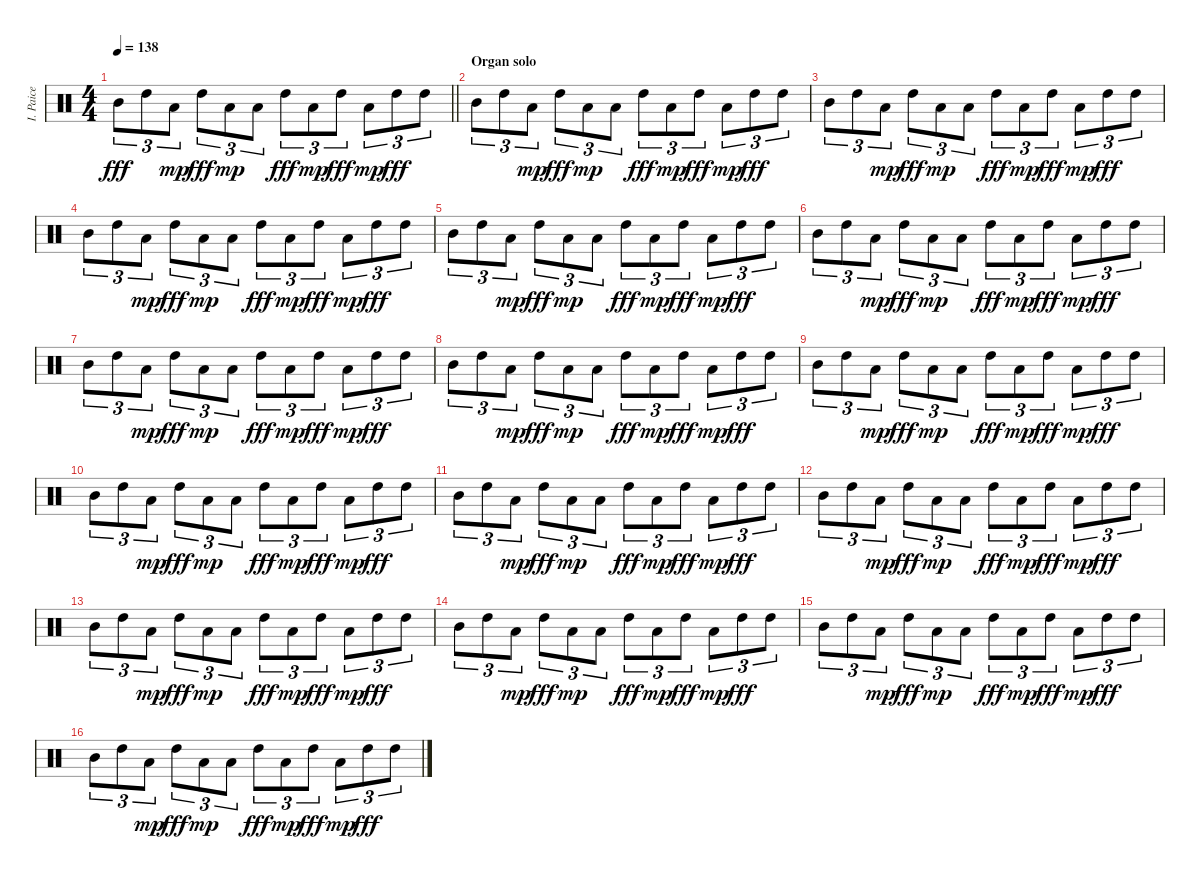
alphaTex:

\track ("I. Paice" "I. Paice") {instrument percussion}
\staff {score}
\articulation defaults
\ts (4 4)
\tempo 138
\clef neutral
\barLineRight lightlight
\ks c "Mid Tom (hit)".8{tu (3 2) dy fff} "High Tom (hit)".8{tu (3 2)} "Low Tom (hit)".8{tu (3 2) dy mp} "High Tom (hit)".8{tu (3 2) dy fff} "Low Tom (hit)".8{tu (3 2) dy mp} "Low Tom (hit)".8{tu (3 2)} "High Tom (hit)".8{tu (3 2) dy fff} "Low Tom (hit)".8{tu (3 2) dy mp} "High Tom (hit)".8{tu (3 2) dy fff} "Low Tom (hit)".8{tu (3 2) dy mp} "High Tom (hit)".8{tu (3 2) dy fff} "High Tom (hit)".8{tu (3 2)}
|
\section ("" "Organ solo")
"Mid Tom (hit)".8{tu (3 2)} "High Tom (hit)".8{tu (3 2)} "Low Tom (hit)".8{tu (3 2) dy mp} "High Tom (hit)".8{tu (3 2) dy fff} "Low Tom (hit)".8{tu (3 2) dy mp} "Low Tom (hit)".8{tu (3 2)} "High Tom (hit)".8{tu (3 2) dy fff} "Low Tom (hit)".8{tu (3 2) dy mp} "High Tom (hit)".8{tu (3 2) dy fff} "Low Tom (hit)".8{tu (3 2) dy mp} "High Tom (hit)".8{tu (3 2) dy fff} "High Tom (hit)".8{tu (3 2)} |
"Mid Tom (hit)".8{tu (3 2)} "High Tom (hit)".8{tu (3 2)} "Low Tom (hit)".8{tu (3 2) dy mp} "High Tom (hit)".8{tu (3 2) dy fff} "Low Tom (hit)".8{tu (3 2) dy mp} "Low Tom (hit)".8{tu (3 2)} "High Tom (hit)".8{tu (3 2) dy fff} "Low Tom (hit)".8{tu (3 2) dy mp} "High Tom (hit)".8{tu (3 2) dy fff} "Low Tom (hit)".8{tu (3 2) dy mp} "High Tom (hit)".8{tu (3 2) dy fff} "High Tom (hit)".8{tu (3 2)} |
"Mid Tom (hit)".8{tu (3 2)} "High Tom (hit)".8{tu (3 2)} "Low Tom (hit)".8{tu (3 2) dy mp} "High Tom (hit)".8{tu (3 2) dy fff} "Low Tom (hit)".8{tu (3 2) dy mp} "Low Tom (hit)".8{tu (3 2)} "High Tom (hit)".8{tu (3 2) dy fff} "Low Tom (hit)".8{tu (3 2) dy mp} "High Tom (hit)".8{tu (3 2) dy fff} "Low Tom (hit)".8{tu (3 2) dy mp} "High Tom (hit)".8{tu (3 2) dy fff} "High Tom (hit)".8{tu (3 2)} |
"Mid Tom (hit)".8{tu (3 2)} "High Tom (hit)".8{tu (3 2)} "Low Tom (hit)".8{tu (3 2) dy mp} "High Tom (hit)".8{tu (3 2) dy fff} "Low Tom (hit)".8{tu (3 2) dy mp} "Low Tom (hit)".8{tu (3 2)} "High Tom (hit)".8{tu (3 2) dy fff} "Low Tom (hit)".8{tu (3 2) dy mp} "High Tom (hit)".8{tu (3 2) dy fff} "Low Tom (hit)".8{tu (3 2) dy mp} "High Tom (hit)".8{tu (3 2) dy fff} "High Tom (hit)".8{tu (3 2)} |
"Mid Tom (hit)".8{tu (3 2)} "High Tom (hit)".8{tu (3 2)} "Low Tom (hit)".8{tu (3 2) dy mp} "High Tom (hit)".8{tu (3 2) dy fff} "Low Tom (hit)".8{tu (3 2) dy mp} "Low Tom (hit)".8{tu (3 2)} "High Tom (hit)".8{tu (3 2) dy fff} "Low Tom (hit)".8{tu (3 2) dy mp} "High Tom (hit)".8{tu (3 2) dy fff} "Low Tom (hit)".8{tu (3 2) dy mp} "High Tom (hit)".8{tu (3 2) dy fff} "High Tom (hit)".8{tu (3 2)} |
"Mid Tom (hit)".8{tu (3 2)} "High Tom (hit)".8{tu (3 2)} "Low Tom (hit)".8{tu (3 2) dy mp} "High Tom (hit)".8{tu (3 2) dy fff} "Low Tom (hit)".8{tu (3 2) dy mp} "Low Tom (hit)".8{tu (3 2)} "High Tom (hit)".8{tu (3 2) dy fff} "Low Tom (hit)".8{tu (3 2) dy mp} "High Tom (hit)".8{tu (3 2) dy fff} "Low Tom (hit)".8{tu (3 2) dy mp} "High Tom (hit)".8{tu (3 2) dy fff} "High Tom (hit)".8{tu (3 2)} |
"Mid Tom (hit)".8{tu (3 2)} "High Tom (hit)".8{tu (3 2)} "Low Tom (hit)".8{tu (3 2) dy mp} "High Tom (hit)".8{tu (3 2) dy fff} "Low Tom (hit)".8{tu (3 2) dy mp} "Low Tom (hit)".8{tu (3 2)} "High Tom (hit)".8{tu (3 2) dy fff} "Low Tom (hit)".8{tu (3 2) dy mp} "High Tom (hit)".8{tu (3 2) dy fff} "Low Tom (hit)".8{tu (3 2) dy mp} "High Tom (hit)".8{tu (3 2) dy fff} "High Tom (hit)".8{tu (3 2)} |
"Mid Tom (hit)".8{tu (3 2)} "High Tom (hit)".8{tu (3 2)} "Low Tom (hit)".8{tu (3 2) dy mp} "High Tom (hit)".8{tu (3 2) dy fff} "Low Tom (hit)".8{tu (3 2) dy mp} "Low Tom (hit)".8{tu (3 2)} "High Tom (hit)".8{tu (3 2) dy fff} "Low Tom (hit)".8{tu (3 2) dy mp} "High Tom (hit)".8{tu (3 2) dy fff} "Low Tom (hit)".8{tu (3 2) dy mp} "High Tom (hit)".8{tu (3 2) dy fff} "High Tom (hit)".8{tu (3 2)} |
"Mid Tom (hit)".8{tu (3 2)} "High Tom (hit)".8{tu (3 2)} "Low Tom (hit)".8{tu (3 2) dy mp} "High Tom (hit)".8{tu (3 2) dy fff} "Low Tom (hit)".8{tu (3 2) dy mp} "Low Tom (hit)".8{tu (3 2)} "High Tom (hit)".8{tu (3 2) dy fff} "Low Tom (hit)".8{tu (3 2) dy mp} "High Tom (hit)".8{tu (3 2) dy fff} "Low Tom (hit)".8{tu (3 2) dy mp} "High Tom (hit)".8{tu (3 2) dy fff} "High Tom (hit)".8{tu (3 2)} |
"Mid Tom (hit)".8{tu (3 2)} "High Tom (hit)".8{tu (3 2)} "Low Tom (hit)".8{tu (3 2) dy mp} "High Tom (hit)".8{tu (3 2) dy fff} "Low Tom (hit)".8{tu (3 2) dy mp} "Low Tom (hit)".8{tu (3 2)} "High Tom (hit)".8{tu (3 2) dy fff} "Low Tom (hit)".8{tu (3 2) dy mp} "High Tom (hit)".8{tu (3 2) dy fff} "Low Tom (hit)".8{tu (3 2) dy mp} "High Tom (hit)".8{tu (3 2) dy fff} "High Tom (hit)".8{tu (3 2)} |
"Mid Tom (hit)".8{tu (3 2)} "High Tom (hit)".8{tu (3 2)} "Low Tom (hit)".8{tu (3 2) dy mp} "High Tom (hit)".8{tu (3 2) dy fff} "Low Tom (hit)".8{tu (3 2) dy mp} "Low Tom (hit)".8{tu (3 2)} "High Tom (hit)".8{tu (3 2) dy fff} "Low Tom (hit)".8{tu (3 2) dy mp} "High Tom (hit)".8{tu (3 2) dy fff} "Low Tom (hit)".8{tu (3 2) dy mp} "High Tom (hit)".8{tu (3 2) dy fff} "High Tom (hit)".8{tu (3 2)} |
"Mid Tom (hit)".8{tu (3 2)} "High Tom (hit)".8{tu (3 2)} "Low Tom (hit)".8{tu (3 2) dy mp} "High Tom (hit)".8{tu (3 2) dy fff} "Low Tom (hit)".8{tu (3 2) dy mp} "Low Tom (hit)".8{tu (3 2)} "High Tom (hit)".8{tu (3 2) dy fff} "Low Tom (hit)".8{tu (3 2) dy mp} "High Tom (hit)".8{tu (3 2) dy fff} "Low Tom (hit)".8{tu (3 2) dy mp} "High Tom (hit)".8{tu (3 2) dy fff} "High Tom (hit)".8{tu (3 2)} |
"Mid Tom (hit)".8{tu (3 2)} "High Tom (hit)".8{tu (3 2)} "Low Tom (hit)".8{tu (3 2) dy mp} "High Tom (hit)".8{tu (3 2) dy fff} "Low Tom (hit)".8{tu (3 2) dy mp} "Low Tom (hit)".8{tu (3 2)} "High Tom (hit)".8{tu (3 2) dy fff} "Low Tom (hit)".8{tu (3 2) dy mp} "High Tom (hit)".8{tu (3 2) dy fff} "Low Tom (hit)".8{tu (3 2) dy mp} "High Tom (hit)".8{tu (3 2) dy fff} "High Tom (hit)".8{tu (3 2)} |
"Mid Tom (hit)".8{tu (3 2)} "High Tom (hit)".8{tu (3 2)} "Low Tom (hit)".8{tu (3 2) dy mp} "High Tom (hit)".8{tu (3 2) dy fff} "Low Tom (hit)".8{tu (3 2) dy mp} "Low Tom (hit)".8{tu (3 2)} "High Tom (hit)".8{tu (3 2) dy fff} "Low Tom (hit)".8{tu (3 2) dy mp} "High Tom (hit)".8{tu (3 2) dy fff} "Low Tom (hit)".8{tu (3 2) dy mp} "High Tom (hit)".8{tu (3 2) dy fff} "High Tom (hit)".8{tu (3 2)} |
"Mid Tom (hit)".8{tu (3 2)} "High Tom (hit)".8{tu (3 2)} "Low Tom (hit)".8{tu (3 2) dy mp} "High Tom (hit)".8{tu (3 2) dy fff} "Low Tom (hit)".8{tu (3 2) dy mp} "Low Tom (hit)".8{tu (3 2)} "High Tom (hit)".8{tu (3 2) dy fff} "Low Tom (hit)".8{tu (3 2) dy mp} "High Tom (hit)".8{tu (3 2) dy fff} "Low Tom (hit)".8{tu (3 2) dy mp} "High Tom (hit)".8{tu (3 2) dy fff} "High Tom (hit)".8{tu (3 2)}
